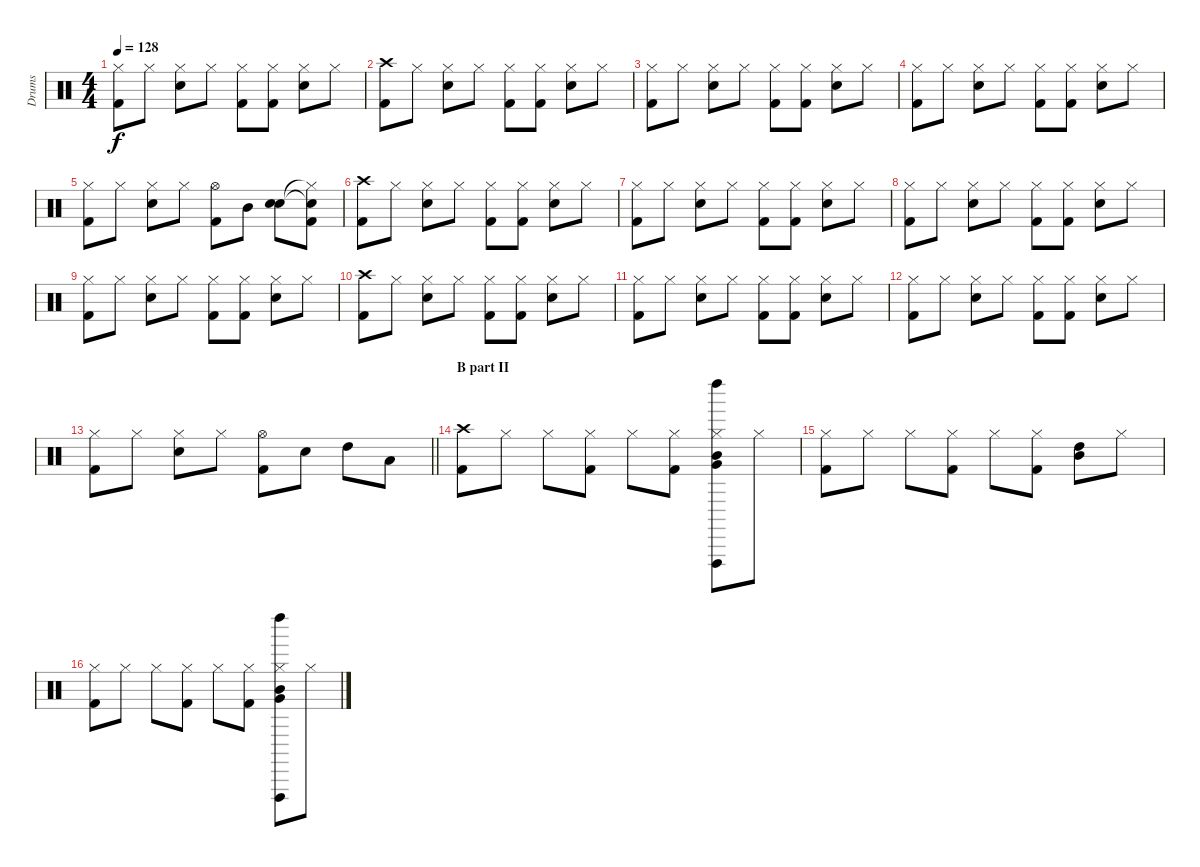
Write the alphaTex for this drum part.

\track ("Drums" "Drums") {instrument percussion}
\staff {score}
\articulation defaults
\ts (4 4)
\tempo 128
\clef neutral
\ks c
("Hi-Hat (closed)" "Kick (hit) 2").8{dy f} "Hi-Hat (closed)".8 ("Hi-Hat (closed)" "Snare (hit) 2").8 "Hi-Hat (closed)".8 ("Hi-Hat (closed)" "Kick (hit) 2").8 ("Hi-Hat (closed)" "Kick (hit) 2").8 ("Hi-Hat (closed)" "Snare (hit) 2").8 "Hi-Hat (closed)".8 |
("Crash high (hit)" "Kick (hit) 2").8 "Hi-Hat (closed)".8 ("Hi-Hat (closed)" "Snare (hit) 2").8 "Hi-Hat (closed)".8 ("Hi-Hat (closed)" "Kick (hit) 2").8 ("Hi-Hat (closed)" "Kick (hit) 2").8 ("Hi-Hat (closed)" "Snare (hit) 2").8 "Hi-Hat (closed)".8 |
("Hi-Hat (closed)" "Kick (hit) 2").8 "Hi-Hat (closed)".8 ("Hi-Hat (closed)" "Snare (hit) 2").8 "Hi-Hat (closed)".8 ("Hi-Hat (closed)" "Kick (hit) 2").8 ("Hi-Hat (closed)" "Kick (hit) 2").8 ("Hi-Hat (closed)" "Snare (hit) 2").8 "Hi-Hat (closed)".8 |
("Hi-Hat (closed)" "Kick (hit) 2").8 "Hi-Hat (closed)".8 ("Hi-Hat (closed)" "Snare (hit) 2").8 "Hi-Hat (closed)".8 ("Hi-Hat (closed)" "Kick (hit) 2").8 ("Hi-Hat (closed)" "Kick (hit) 2").8 ("Hi-Hat (closed)" "Snare (hit) 2").8 "Hi-Hat (closed)".8 |
("Hi-Hat (closed)" "Kick (hit) 2").8 "Hi-Hat (closed)".8 ("Hi-Hat (closed)" "Snare (hit) 2").8 "Hi-Hat (closed)".8 ("Hi-Hat (open)" "Kick (hit) 2").8 "Mid Tom (hit)".8 ("Snare (hit) 2" "Snare (hit) 2").8 ("Hi-Hat (closed)"{t} "Snare (hit)"{t} "Kick (hit) 2").8 |
("Crash high (hit)" "Kick (hit) 2").8 "Hi-Hat (closed)".8 ("Hi-Hat (closed)" "Snare (hit) 2").8 "Hi-Hat (closed)".8 ("Hi-Hat (closed)" "Kick (hit) 2").8 ("Hi-Hat (closed)" "Kick (hit) 2").8 ("Hi-Hat (closed)" "Snare (hit) 2").8 "Hi-Hat (closed)".8 |
("Hi-Hat (closed)" "Kick (hit) 2").8 "Hi-Hat (closed)".8 ("Hi-Hat (closed)" "Snare (hit) 2").8 "Hi-Hat (closed)".8 ("Hi-Hat (closed)" "Kick (hit) 2").8 ("Hi-Hat (closed)" "Kick (hit) 2").8 ("Hi-Hat (closed)" "Snare (hit) 2").8 "Hi-Hat (closed)".8 |
("Hi-Hat (closed)" "Kick (hit) 2").8 "Hi-Hat (closed)".8 ("Hi-Hat (closed)" "Snare (hit) 2").8 "Hi-Hat (closed)".8 ("Hi-Hat (closed)" "Kick (hit) 2").8 ("Hi-Hat (closed)" "Kick (hit) 2").8 ("Hi-Hat (closed)" "Snare (hit) 2").8 "Hi-Hat (closed)".8 |
("Hi-Hat (closed)" "Kick (hit) 2").8 "Hi-Hat (closed)".8 ("Hi-Hat (closed)" "Snare (hit) 2").8 "Hi-Hat (closed)".8 ("Hi-Hat (closed)" "Kick (hit) 2").8 ("Hi-Hat (closed)" "Kick (hit) 2").8 ("Hi-Hat (closed)" "Snare (hit) 2").8 "Hi-Hat (closed)".8 |
("Crash high (hit)" "Kick (hit) 2").8 "Hi-Hat (closed)".8 ("Hi-Hat (closed)" "Snare (hit) 2").8 "Hi-Hat (closed)".8 ("Hi-Hat (closed)" "Kick (hit) 2").8 ("Hi-Hat (closed)" "Kick (hit) 2").8 ("Hi-Hat (closed)" "Snare (hit) 2").8 "Hi-Hat (closed)".8 |
("Hi-Hat (closed)" "Kick (hit) 2").8 "Hi-Hat (closed)".8 ("Hi-Hat (closed)" "Snare (hit) 2").8 "Hi-Hat (closed)".8 ("Hi-Hat (closed)" "Kick (hit) 2").8 ("Hi-Hat (closed)" "Kick (hit) 2").8 ("Hi-Hat (closed)" "Snare (hit) 2").8 "Hi-Hat (closed)".8 |
("Hi-Hat (closed)" "Kick (hit) 2").8 "Hi-Hat (closed)".8 ("Hi-Hat (closed)" "Snare (hit) 2").8 "Hi-Hat (closed)".8 ("Hi-Hat (closed)" "Kick (hit) 2").8 ("Hi-Hat (closed)" "Kick (hit) 2").8 ("Hi-Hat (closed)" "Snare (hit) 2").8 "Hi-Hat (closed)".8 |
\barLineRight lightlight
("Hi-Hat (closed)" "Kick (hit) 2").8 "Hi-Hat (closed)".8 ("Hi-Hat (closed)" "Snare (hit) 2").8 "Hi-Hat (closed)".8 ("Hi-Hat (open)" "Kick (hit) 2").8 "Snare (hit) 2".8 "High Tom (hit)".8 "Low Tom (hit)".8 |
\section ("" "B part II")
("Crash high (hit)" "Kick (hit) 2").8 "Hi-Hat (closed)".8 "Hi-Hat (closed)".8 ("Hi-Hat (closed)" "Kick (hit) 2").8 "Hi-Hat (closed)".8 ("Hi-Hat (closed)" "Kick (hit) 2").8 ("Vibraslap (hit)" "Hi-Hat (closed)" "Mid Tom (hit)" "Very Low Tom (hit)" "Left Maraca (hit)").8 "Hi-Hat (closed)".8 |
("Hi-Hat (closed)" "Kick (hit) 2").8 "Hi-Hat (closed)".8 "Hi-Hat (closed)".8 ("Hi-Hat (closed)" "Kick (hit) 2").8 "Hi-Hat (closed)".8 ("Hi-Hat (closed)" "Kick (hit) 2").8 ("High Tom (hit)" "Mid Tom (hit)").8 "Hi-Hat (closed)".8 |
("Hi-Hat (closed)" "Kick (hit) 2").8 "Hi-Hat (closed)".8 "Hi-Hat (closed)".8 ("Hi-Hat (closed)" "Kick (hit) 2").8 "Hi-Hat (closed)".8 ("Hi-Hat (closed)" "Kick (hit) 2").8 ("Vibraslap (hit)" "Hi-Hat (closed)" "Mid Tom (hit)" "Very Low Tom (hit)" "Left Maraca (hit)").8 "Hi-Hat (closed)".8
